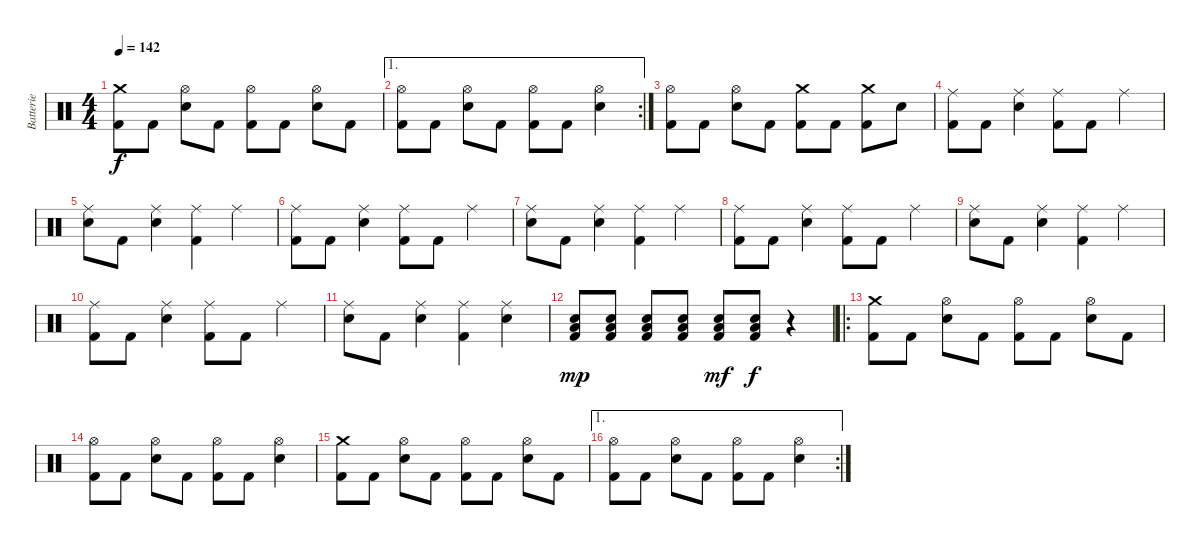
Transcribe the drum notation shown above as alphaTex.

\track ("Batterie" "Batterie") {instrument percussion}
\staff {score}
\articulation defaults
\ts (4 4)
\tempo 142
\clef neutral
\ks c
("Kick (hit) 2" "Crash medium (hit)").8{dy f} "Kick (hit) 2".8 ("Electric Snare (hit)" "Hi-Hat (open)").8 "Kick (hit) 2".8 ("Kick (hit) 2" "Hi-Hat (open)").8 "Kick (hit) 2".8 ("Electric Snare (hit)" "Hi-Hat (open)").8 "Kick (hit) 2".8 |
\ae 1
\rc 2
("Kick (hit) 2" "Hi-Hat (open)").8 "Kick (hit) 2".8 ("Electric Snare (hit)" "Hi-Hat (open)").8 "Kick (hit) 2".8 ("Kick (hit) 2" "Hi-Hat (open)").8 "Kick (hit) 2".8 ("Electric Snare (hit)" "Hi-Hat (open)").4 |
("Kick (hit) 2" "Hi-Hat (open)").8 "Kick (hit) 2".8 ("Electric Snare (hit)" "Hi-Hat (open)").8 "Kick (hit) 2".8 ("Kick (hit) 2" "Crash medium (hit)").8 "Kick (hit) 2".8 ("Kick (hit) 2" "Crash medium (hit)").8 "Electric Snare (hit)".8 |
("Kick (hit) 2" "Ride (middle)").8 "Kick (hit) 2".8 ("Electric Snare (hit)" "Ride (middle)").4 ("Kick (hit) 2" "Ride (middle)").8 "Kick (hit) 2".8 "Ride (middle)".4 |
("Electric Snare (hit)" "Ride (middle)").8 "Kick (hit) 2".8 ("Electric Snare (hit)" "Ride (middle)").4 ("Kick (hit) 2" "Ride (middle)").4 "Ride (middle)".4 |
("Kick (hit) 2" "Ride (middle)").8 "Kick (hit) 2".8 ("Electric Snare (hit)" "Ride (middle)").4 ("Kick (hit) 2" "Ride (middle)").8 "Kick (hit) 2".8 "Ride (middle)".4 |
("Electric Snare (hit)" "Ride (middle)").8 "Kick (hit) 2".8 ("Electric Snare (hit)" "Ride (middle)").4 ("Kick (hit) 2" "Ride (middle)").4 "Ride (middle)".4 |
("Kick (hit) 2" "Ride (middle)").8 "Kick (hit) 2".8 ("Electric Snare (hit)" "Ride (middle)").4 ("Kick (hit) 2" "Ride (middle)").8 "Kick (hit) 2".8 "Ride (middle)".4 |
("Electric Snare (hit)" "Ride (middle)").8 "Kick (hit) 2".8 ("Electric Snare (hit)" "Ride (middle)").4 ("Kick (hit) 2" "Ride (middle)").4 "Ride (middle)".4 |
("Kick (hit) 2" "Ride (middle)").8 "Kick (hit) 2".8 ("Electric Snare (hit)" "Ride (middle)").4 ("Kick (hit) 2" "Ride (middle)").8 "Kick (hit) 2".8 "Ride (middle)".4 |
("Electric Snare (hit)" "Ride (middle)").8 "Kick (hit) 2".8 ("Electric Snare (hit)" "Ride (middle)").4 ("Kick (hit) 2" "Ride (middle)").4 ("Electric Snare (hit)" "Ride (middle)").4 |
("Kick (hit) 2" "Low Floor Tom (hit)" "Electric Snare (hit)").8{dy mp} ("Kick (hit) 2" "Low Floor Tom (hit)" "Electric Snare (hit)").8 ("Kick (hit) 2" "Low Floor Tom (hit)" "Electric Snare (hit)").8 ("Kick (hit) 2" "Low Floor Tom (hit)" "Electric Snare (hit)").8 ("Kick (hit) 2" "Low Floor Tom (hit)" "Electric Snare (hit)").8{dy mf} ("Kick (hit) 2" "Low Floor Tom (hit)" "Electric Snare (hit)").8{dy f} r.4 |
\ro
("Kick (hit) 2" "Crash medium (hit)").8 "Kick (hit) 2".8 ("Electric Snare (hit)" "Hi-Hat (open)").8 "Kick (hit) 2".8 ("Kick (hit) 2" "Hi-Hat (open)").8 "Kick (hit) 2".8 ("Electric Snare (hit)" "Hi-Hat (open)").8 "Kick (hit) 2".8 |
("Kick (hit) 2" "Hi-Hat (open)").8 "Kick (hit) 2".8 ("Electric Snare (hit)" "Hi-Hat (open)").8 "Kick (hit) 2".8 ("Kick (hit) 2" "Hi-Hat (open)").8 "Kick (hit) 2".8 ("Electric Snare (hit)" "Hi-Hat (open)").4 |
("Kick (hit) 2" "Crash medium (hit)").8 "Kick (hit) 2".8 ("Electric Snare (hit)" "Hi-Hat (open)").8 "Kick (hit) 2".8 ("Kick (hit) 2" "Hi-Hat (open)").8 "Kick (hit) 2".8 ("Electric Snare (hit)" "Hi-Hat (open)").8 "Kick (hit) 2".8 |
\ae 1
\rc 2
("Kick (hit) 2" "Hi-Hat (open)").8 "Kick (hit) 2".8 ("Electric Snare (hit)" "Hi-Hat (open)").8 "Kick (hit) 2".8 ("Kick (hit) 2" "Hi-Hat (open)").8 "Kick (hit) 2".8 ("Electric Snare (hit)" "Hi-Hat (open)").4
